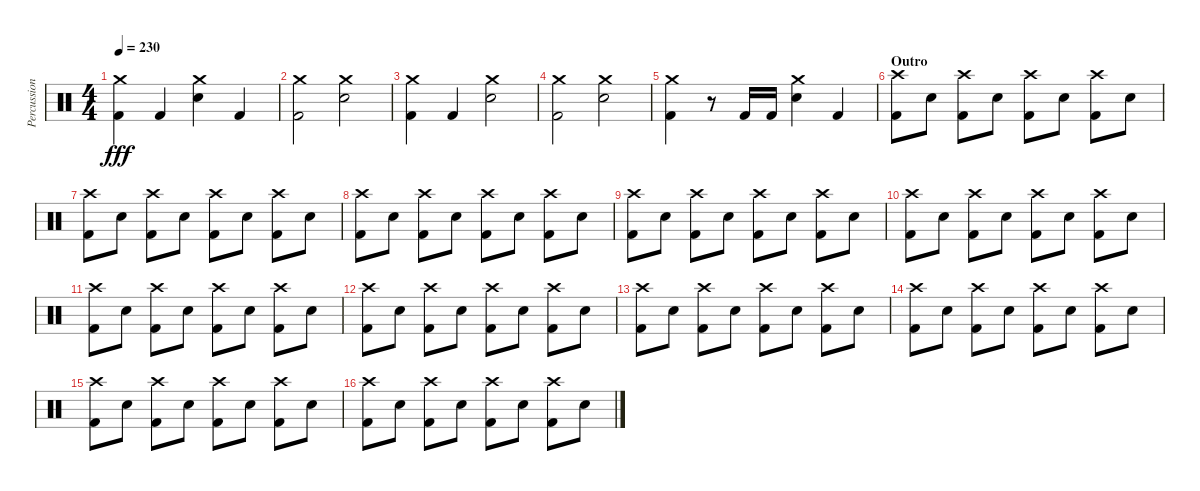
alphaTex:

\track ("Percussion" "Percussion") {instrument percussion}
\staff {score}
\articulation defaults
\ts (4 4)
\tempo 230
\clef neutral
\ks c
("Kick (hit) 2" "Crash medium (hit)").4{dy fff} "Kick (hit) 2".4 ("Electric Snare (hit)" "Crash medium (hit)").4 "Kick (hit) 2".4 |
("Kick (hit) 2" "Crash medium (hit)").2 ("Electric Snare (hit)" "Crash medium (hit)").2 |
("Kick (hit) 2" "Crash medium (hit)").4 "Kick (hit) 2".4 ("Electric Snare (hit)" "Crash medium (hit)").2 |
("Kick (hit) 2" "Crash medium (hit)").2 ("Electric Snare (hit)" "Crash medium (hit)").2 |
("Kick (hit) 2" "Crash medium (hit)").4 r.8 "Kick (hit) 2".16 "Kick (hit) 2".16 ("Electric Snare (hit)" "Crash medium (hit)").4 "Kick (hit) 2".4 |
\section ("" "Outro")
("Kick (hit) 2" "Crash high (hit)").8 "Electric Snare (hit)".8 ("Kick (hit) 2" "Crash high (hit)").8 "Electric Snare (hit)".8 ("Kick (hit) 2" "Crash high (hit)").8 "Electric Snare (hit)".8 ("Kick (hit) 2" "Crash high (hit)").8 "Electric Snare (hit)".8 |
("Kick (hit) 2" "Crash high (hit)").8 "Electric Snare (hit)".8 ("Kick (hit) 2" "Crash high (hit)").8 "Electric Snare (hit)".8 ("Kick (hit) 2" "Crash high (hit)").8 "Electric Snare (hit)".8 ("Kick (hit) 2" "Crash high (hit)").8 "Electric Snare (hit)".8 |
("Kick (hit) 2" "Crash high (hit)").8 "Electric Snare (hit)".8 ("Kick (hit) 2" "Crash high (hit)").8 "Electric Snare (hit)".8 ("Kick (hit) 2" "Crash high (hit)").8 "Electric Snare (hit)".8 ("Kick (hit) 2" "Crash high (hit)").8 "Electric Snare (hit)".8 |
("Kick (hit) 2" "Crash high (hit)").8 "Electric Snare (hit)".8 ("Kick (hit) 2" "Crash high (hit)").8 "Electric Snare (hit)".8 ("Kick (hit) 2" "Crash high (hit)").8 "Electric Snare (hit)".8 ("Kick (hit) 2" "Crash high (hit)").8 "Electric Snare (hit)".8 |
("Kick (hit) 2" "Crash high (hit)").8 "Electric Snare (hit)".8 ("Kick (hit) 2" "Crash high (hit)").8 "Electric Snare (hit)".8 ("Kick (hit) 2" "Crash high (hit)").8 "Electric Snare (hit)".8 ("Kick (hit) 2" "Crash high (hit)").8 "Electric Snare (hit)".8 |
("Kick (hit) 2" "Crash high (hit)").8 "Electric Snare (hit)".8 ("Kick (hit) 2" "Crash high (hit)").8 "Electric Snare (hit)".8 ("Kick (hit) 2" "Crash high (hit)").8 "Electric Snare (hit)".8 ("Kick (hit) 2" "Crash high (hit)").8 "Electric Snare (hit)".8 |
("Kick (hit) 2" "Crash high (hit)").8 "Electric Snare (hit)".8 ("Kick (hit) 2" "Crash high (hit)").8 "Electric Snare (hit)".8 ("Kick (hit) 2" "Crash high (hit)").8 "Electric Snare (hit)".8 ("Kick (hit) 2" "Crash high (hit)").8 "Electric Snare (hit)".8 |
("Kick (hit) 2" "Crash high (hit)").8 "Electric Snare (hit)".8 ("Kick (hit) 2" "Crash high (hit)").8 "Electric Snare (hit)".8 ("Kick (hit) 2" "Crash high (hit)").8 "Electric Snare (hit)".8 ("Kick (hit) 2" "Crash high (hit)").8 "Electric Snare (hit)".8 |
("Kick (hit) 2" "Crash high (hit)").8 "Electric Snare (hit)".8 ("Kick (hit) 2" "Crash high (hit)").8 "Electric Snare (hit)".8 ("Kick (hit) 2" "Crash high (hit)").8 "Electric Snare (hit)".8 ("Kick (hit) 2" "Crash high (hit)").8 "Electric Snare (hit)".8 |
("Kick (hit) 2" "Crash high (hit)").8 "Electric Snare (hit)".8 ("Kick (hit) 2" "Crash high (hit)").8 "Electric Snare (hit)".8 ("Kick (hit) 2" "Crash high (hit)").8 "Electric Snare (hit)".8 ("Kick (hit) 2" "Crash high (hit)").8 "Electric Snare (hit)".8 |
("Kick (hit) 2" "Crash high (hit)").8 "Electric Snare (hit)".8 ("Kick (hit) 2" "Crash high (hit)").8 "Electric Snare (hit)".8 ("Kick (hit) 2" "Crash high (hit)").8 "Electric Snare (hit)".8 ("Kick (hit) 2" "Crash high (hit)").8 "Electric Snare (hit)".8
